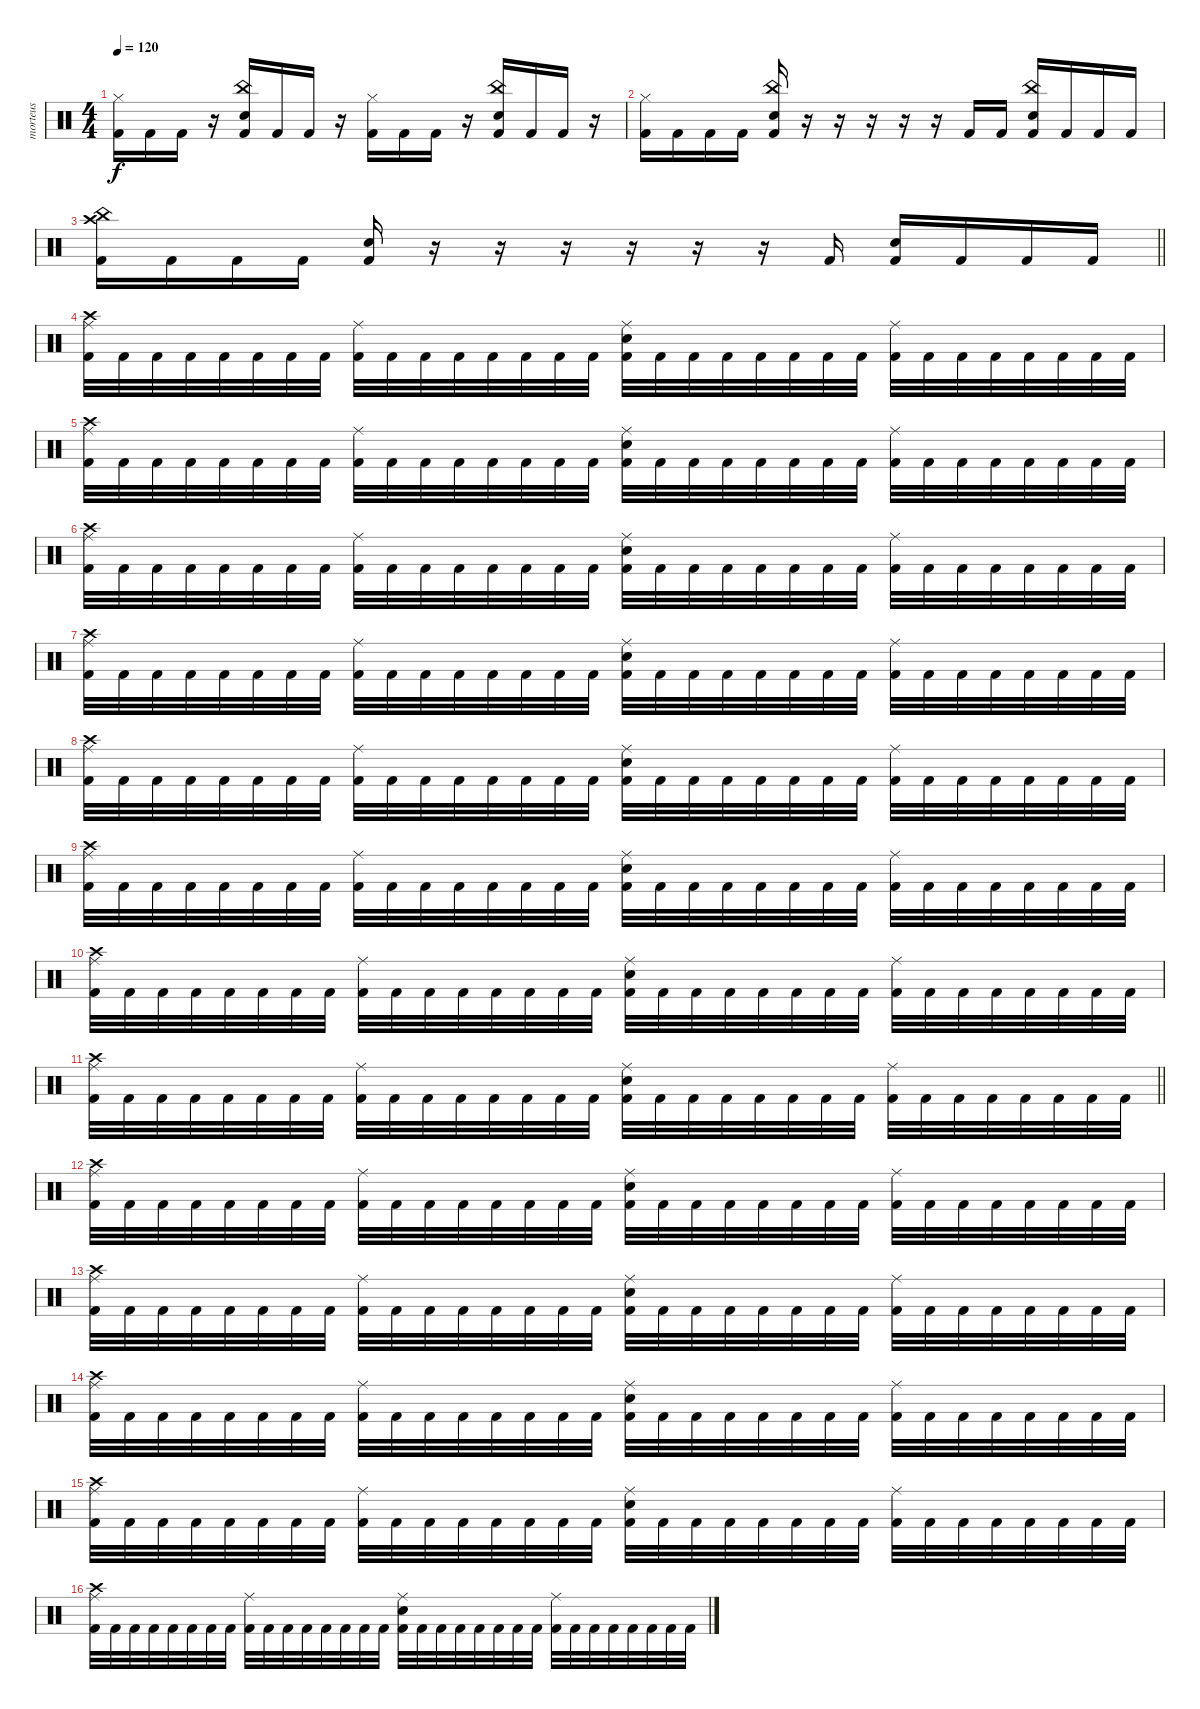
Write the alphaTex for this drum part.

\track ("morteus" "morteus") {instrument percussion}
\staff {score}
\articulation defaults
\ts (4 4)
\tempo 120
\clef neutral
\ks c
("Hi-Hat (closed)" "Kick (hit) 2").16{dy f} "Kick (hit) 2".16 "Kick (hit) 2".16 r.16 ("China (hit)" "Electric Snare (hit)" "Kick (hit) 2").16 "Kick (hit) 2".16 "Kick (hit) 2".16 r.16 ("Hi-Hat (closed)" "Kick (hit) 2").16 "Kick (hit) 2".16 "Kick (hit) 2".16 r.16 ("China (hit)" "Electric Snare (hit)" "Kick (hit) 2").16 "Kick (hit) 2".16 "Kick (hit) 2".16 r.16 |
("Hi-Hat (closed)" "Kick (hit) 2").16 "Kick (hit) 2".16 "Kick (hit) 2".16 "Kick (hit) 2".16 ("China (hit)" "Electric Snare (hit)" "Kick (hit) 2").16 r.16 r.16 r.16 r.16 r.16 "Kick (hit) 2".16 "Kick (hit) 2".16 ("China (hit)" "Electric Snare (hit)" "Kick (hit) 2").16 "Kick (hit) 2".16 "Kick (hit) 2".16 "Kick (hit) 2".16 |
\barLineRight lightlight
("China (hit)" "Crash high (hit)" "Kick (hit) 2").16 "Kick (hit) 2".16 "Kick (hit) 2".16 "Kick (hit) 2".16 ("Electric Snare (hit)" "Kick (hit) 2").16 r.16 r.16 r.16 r.16 r.16 r.16 "Kick (hit) 2".16 ("Electric Snare (hit)" "Kick (hit) 2").16 "Kick (hit) 2".16 "Kick (hit) 2".16 "Kick (hit) 2".16 |
\section ("" "")
("Ride (middle)" "Crash high (hit)" "Kick (hit) 2").32 "Kick (hit) 2".32 "Kick (hit) 2".32 "Kick (hit) 2".32 "Kick (hit) 2".32 "Kick (hit) 2".32 "Kick (hit) 2".32 "Kick (hit) 2".32 ("Ride (middle)" "Kick (hit) 2").32 "Kick (hit) 2".32 "Kick (hit) 2".32 "Kick (hit) 2".32 "Kick (hit) 2".32 "Kick (hit) 2".32 "Kick (hit) 2".32 "Kick (hit) 2".32 ("Ride (middle)" "Electric Snare (hit)" "Kick (hit) 2").32 "Kick (hit) 2".32 "Kick (hit) 2".32 "Kick (hit) 2".32 "Kick (hit) 2".32 "Kick (hit) 2".32 "Kick (hit) 2".32 "Kick (hit) 2".32 ("Ride (middle)" "Kick (hit) 2").32 "Kick (hit) 2".32 "Kick (hit) 2".32 "Kick (hit) 2".32 "Kick (hit) 2".32 "Kick (hit) 2".32 "Kick (hit) 2".32 "Kick (hit) 2".32 |
("Ride (middle)" "Crash high (hit)" "Kick (hit) 2").32 "Kick (hit) 2".32 "Kick (hit) 2".32 "Kick (hit) 2".32 "Kick (hit) 2".32 "Kick (hit) 2".32 "Kick (hit) 2".32 "Kick (hit) 2".32 ("Ride (middle)" "Kick (hit) 2").32 "Kick (hit) 2".32 "Kick (hit) 2".32 "Kick (hit) 2".32 "Kick (hit) 2".32 "Kick (hit) 2".32 "Kick (hit) 2".32 "Kick (hit) 2".32 ("Ride (middle)" "Electric Snare (hit)" "Kick (hit) 2").32 "Kick (hit) 2".32 "Kick (hit) 2".32 "Kick (hit) 2".32 "Kick (hit) 2".32 "Kick (hit) 2".32 "Kick (hit) 2".32 "Kick (hit) 2".32 ("Ride (middle)" "Kick (hit) 2").32 "Kick (hit) 2".32 "Kick (hit) 2".32 "Kick (hit) 2".32 "Kick (hit) 2".32 "Kick (hit) 2".32 "Kick (hit) 2".32 "Kick (hit) 2".32 |
("Ride (middle)" "Crash high (hit)" "Kick (hit) 2").32 "Kick (hit) 2".32 "Kick (hit) 2".32 "Kick (hit) 2".32 "Kick (hit) 2".32 "Kick (hit) 2".32 "Kick (hit) 2".32 "Kick (hit) 2".32 ("Ride (middle)" "Kick (hit) 2").32 "Kick (hit) 2".32 "Kick (hit) 2".32 "Kick (hit) 2".32 "Kick (hit) 2".32 "Kick (hit) 2".32 "Kick (hit) 2".32 "Kick (hit) 2".32 ("Ride (middle)" "Electric Snare (hit)" "Kick (hit) 2").32 "Kick (hit) 2".32 "Kick (hit) 2".32 "Kick (hit) 2".32 "Kick (hit) 2".32 "Kick (hit) 2".32 "Kick (hit) 2".32 "Kick (hit) 2".32 ("Ride (middle)" "Kick (hit) 2").32 "Kick (hit) 2".32 "Kick (hit) 2".32 "Kick (hit) 2".32 "Kick (hit) 2".32 "Kick (hit) 2".32 "Kick (hit) 2".32 "Kick (hit) 2".32 |
("Ride (middle)" "Crash high (hit)" "Kick (hit) 2").32 "Kick (hit) 2".32 "Kick (hit) 2".32 "Kick (hit) 2".32 "Kick (hit) 2".32 "Kick (hit) 2".32 "Kick (hit) 2".32 "Kick (hit) 2".32 ("Ride (middle)" "Kick (hit) 2").32 "Kick (hit) 2".32 "Kick (hit) 2".32 "Kick (hit) 2".32 "Kick (hit) 2".32 "Kick (hit) 2".32 "Kick (hit) 2".32 "Kick (hit) 2".32 ("Ride (middle)" "Electric Snare (hit)" "Kick (hit) 2").32 "Kick (hit) 2".32 "Kick (hit) 2".32 "Kick (hit) 2".32 "Kick (hit) 2".32 "Kick (hit) 2".32 "Kick (hit) 2".32 "Kick (hit) 2".32 ("Ride (middle)" "Kick (hit) 2").32 "Kick (hit) 2".32 "Kick (hit) 2".32 "Kick (hit) 2".32 "Kick (hit) 2".32 "Kick (hit) 2".32 "Kick (hit) 2".32 "Kick (hit) 2".32 |
("Ride (middle)" "Crash high (hit)" "Kick (hit) 2").32 "Kick (hit) 2".32 "Kick (hit) 2".32 "Kick (hit) 2".32 "Kick (hit) 2".32 "Kick (hit) 2".32 "Kick (hit) 2".32 "Kick (hit) 2".32 ("Ride (middle)" "Kick (hit) 2").32 "Kick (hit) 2".32 "Kick (hit) 2".32 "Kick (hit) 2".32 "Kick (hit) 2".32 "Kick (hit) 2".32 "Kick (hit) 2".32 "Kick (hit) 2".32 ("Ride (middle)" "Electric Snare (hit)" "Kick (hit) 2").32 "Kick (hit) 2".32 "Kick (hit) 2".32 "Kick (hit) 2".32 "Kick (hit) 2".32 "Kick (hit) 2".32 "Kick (hit) 2".32 "Kick (hit) 2".32 ("Ride (middle)" "Kick (hit) 2").32 "Kick (hit) 2".32 "Kick (hit) 2".32 "Kick (hit) 2".32 "Kick (hit) 2".32 "Kick (hit) 2".32 "Kick (hit) 2".32 "Kick (hit) 2".32 |
("Ride (middle)" "Crash high (hit)" "Kick (hit) 2").32 "Kick (hit) 2".32 "Kick (hit) 2".32 "Kick (hit) 2".32 "Kick (hit) 2".32 "Kick (hit) 2".32 "Kick (hit) 2".32 "Kick (hit) 2".32 ("Ride (middle)" "Kick (hit) 2").32 "Kick (hit) 2".32 "Kick (hit) 2".32 "Kick (hit) 2".32 "Kick (hit) 2".32 "Kick (hit) 2".32 "Kick (hit) 2".32 "Kick (hit) 2".32 ("Ride (middle)" "Electric Snare (hit)" "Kick (hit) 2").32 "Kick (hit) 2".32 "Kick (hit) 2".32 "Kick (hit) 2".32 "Kick (hit) 2".32 "Kick (hit) 2".32 "Kick (hit) 2".32 "Kick (hit) 2".32 ("Ride (middle)" "Kick (hit) 2").32 "Kick (hit) 2".32 "Kick (hit) 2".32 "Kick (hit) 2".32 "Kick (hit) 2".32 "Kick (hit) 2".32 "Kick (hit) 2".32 "Kick (hit) 2".32 |
("Ride (middle)" "Crash high (hit)" "Kick (hit) 2").32 "Kick (hit) 2".32 "Kick (hit) 2".32 "Kick (hit) 2".32 "Kick (hit) 2".32 "Kick (hit) 2".32 "Kick (hit) 2".32 "Kick (hit) 2".32 ("Ride (middle)" "Kick (hit) 2").32 "Kick (hit) 2".32 "Kick (hit) 2".32 "Kick (hit) 2".32 "Kick (hit) 2".32 "Kick (hit) 2".32 "Kick (hit) 2".32 "Kick (hit) 2".32 ("Ride (middle)" "Electric Snare (hit)" "Kick (hit) 2").32 "Kick (hit) 2".32 "Kick (hit) 2".32 "Kick (hit) 2".32 "Kick (hit) 2".32 "Kick (hit) 2".32 "Kick (hit) 2".32 "Kick (hit) 2".32 ("Ride (middle)" "Kick (hit) 2").32 "Kick (hit) 2".32 "Kick (hit) 2".32 "Kick (hit) 2".32 "Kick (hit) 2".32 "Kick (hit) 2".32 "Kick (hit) 2".32 "Kick (hit) 2".32 |
\barLineRight lightlight
("Ride (middle)" "Crash high (hit)" "Kick (hit) 2").32 "Kick (hit) 2".32 "Kick (hit) 2".32 "Kick (hit) 2".32 "Kick (hit) 2".32 "Kick (hit) 2".32 "Kick (hit) 2".32 "Kick (hit) 2".32 ("Ride (middle)" "Kick (hit) 2").32 "Kick (hit) 2".32 "Kick (hit) 2".32 "Kick (hit) 2".32 "Kick (hit) 2".32 "Kick (hit) 2".32 "Kick (hit) 2".32 "Kick (hit) 2".32 ("Ride (middle)" "Electric Snare (hit)" "Kick (hit) 2").32 "Kick (hit) 2".32 "Kick (hit) 2".32 "Kick (hit) 2".32 "Kick (hit) 2".32 "Kick (hit) 2".32 "Kick (hit) 2".32 "Kick (hit) 2".32 ("Ride (middle)" "Kick (hit) 2").32 "Kick (hit) 2".32 "Kick (hit) 2".32 "Kick (hit) 2".32 "Kick (hit) 2".32 "Kick (hit) 2".32 "Kick (hit) 2".32 "Kick (hit) 2".32 |
("Ride (middle)" "Crash high (hit)" "Kick (hit) 2").32 "Kick (hit) 2".32 "Kick (hit) 2".32 "Kick (hit) 2".32 "Kick (hit) 2".32 "Kick (hit) 2".32 "Kick (hit) 2".32 "Kick (hit) 2".32 ("Ride (middle)" "Kick (hit) 2").32 "Kick (hit) 2".32 "Kick (hit) 2".32 "Kick (hit) 2".32 "Kick (hit) 2".32 "Kick (hit) 2".32 "Kick (hit) 2".32 "Kick (hit) 2".32 ("Ride (middle)" "Electric Snare (hit)" "Kick (hit) 2").32 "Kick (hit) 2".32 "Kick (hit) 2".32 "Kick (hit) 2".32 "Kick (hit) 2".32 "Kick (hit) 2".32 "Kick (hit) 2".32 "Kick (hit) 2".32 ("Ride (middle)" "Kick (hit) 2").32 "Kick (hit) 2".32 "Kick (hit) 2".32 "Kick (hit) 2".32 "Kick (hit) 2".32 "Kick (hit) 2".32 "Kick (hit) 2".32 "Kick (hit) 2".32 |
("Ride (middle)" "Crash high (hit)" "Kick (hit) 2").32 "Kick (hit) 2".32 "Kick (hit) 2".32 "Kick (hit) 2".32 "Kick (hit) 2".32 "Kick (hit) 2".32 "Kick (hit) 2".32 "Kick (hit) 2".32 ("Ride (middle)" "Kick (hit) 2").32 "Kick (hit) 2".32 "Kick (hit) 2".32 "Kick (hit) 2".32 "Kick (hit) 2".32 "Kick (hit) 2".32 "Kick (hit) 2".32 "Kick (hit) 2".32 ("Ride (middle)" "Electric Snare (hit)" "Kick (hit) 2").32 "Kick (hit) 2".32 "Kick (hit) 2".32 "Kick (hit) 2".32 "Kick (hit) 2".32 "Kick (hit) 2".32 "Kick (hit) 2".32 "Kick (hit) 2".32 ("Ride (middle)" "Kick (hit) 2").32 "Kick (hit) 2".32 "Kick (hit) 2".32 "Kick (hit) 2".32 "Kick (hit) 2".32 "Kick (hit) 2".32 "Kick (hit) 2".32 "Kick (hit) 2".32 |
("Ride (middle)" "Crash high (hit)" "Kick (hit) 2").32 "Kick (hit) 2".32 "Kick (hit) 2".32 "Kick (hit) 2".32 "Kick (hit) 2".32 "Kick (hit) 2".32 "Kick (hit) 2".32 "Kick (hit) 2".32 ("Ride (middle)" "Kick (hit) 2").32 "Kick (hit) 2".32 "Kick (hit) 2".32 "Kick (hit) 2".32 "Kick (hit) 2".32 "Kick (hit) 2".32 "Kick (hit) 2".32 "Kick (hit) 2".32 ("Ride (middle)" "Electric Snare (hit)" "Kick (hit) 2").32 "Kick (hit) 2".32 "Kick (hit) 2".32 "Kick (hit) 2".32 "Kick (hit) 2".32 "Kick (hit) 2".32 "Kick (hit) 2".32 "Kick (hit) 2".32 ("Ride (middle)" "Kick (hit) 2").32 "Kick (hit) 2".32 "Kick (hit) 2".32 "Kick (hit) 2".32 "Kick (hit) 2".32 "Kick (hit) 2".32 "Kick (hit) 2".32 "Kick (hit) 2".32 |
("Ride (middle)" "Crash high (hit)" "Kick (hit) 2").32 "Kick (hit) 2".32 "Kick (hit) 2".32 "Kick (hit) 2".32 "Kick (hit) 2".32 "Kick (hit) 2".32 "Kick (hit) 2".32 "Kick (hit) 2".32 ("Ride (middle)" "Kick (hit) 2").32 "Kick (hit) 2".32 "Kick (hit) 2".32 "Kick (hit) 2".32 "Kick (hit) 2".32 "Kick (hit) 2".32 "Kick (hit) 2".32 "Kick (hit) 2".32 ("Ride (middle)" "Electric Snare (hit)" "Kick (hit) 2").32 "Kick (hit) 2".32 "Kick (hit) 2".32 "Kick (hit) 2".32 "Kick (hit) 2".32 "Kick (hit) 2".32 "Kick (hit) 2".32 "Kick (hit) 2".32 ("Ride (middle)" "Kick (hit) 2").32 "Kick (hit) 2".32 "Kick (hit) 2".32 "Kick (hit) 2".32 "Kick (hit) 2".32 "Kick (hit) 2".32 "Kick (hit) 2".32 "Kick (hit) 2".32 |
("Ride (middle)" "Crash high (hit)" "Kick (hit) 2").32 "Kick (hit) 2".32 "Kick (hit) 2".32 "Kick (hit) 2".32 "Kick (hit) 2".32 "Kick (hit) 2".32 "Kick (hit) 2".32 "Kick (hit) 2".32 ("Ride (middle)" "Kick (hit) 2").32 "Kick (hit) 2".32 "Kick (hit) 2".32 "Kick (hit) 2".32 "Kick (hit) 2".32 "Kick (hit) 2".32 "Kick (hit) 2".32 "Kick (hit) 2".32 ("Ride (middle)" "Electric Snare (hit)" "Kick (hit) 2").32 "Kick (hit) 2".32 "Kick (hit) 2".32 "Kick (hit) 2".32 "Kick (hit) 2".32 "Kick (hit) 2".32 "Kick (hit) 2".32 "Kick (hit) 2".32 ("Ride (middle)" "Kick (hit) 2").32 "Kick (hit) 2".32 "Kick (hit) 2".32 "Kick (hit) 2".32 "Kick (hit) 2".32 "Kick (hit) 2".32 "Kick (hit) 2".32 "Kick (hit) 2".32
